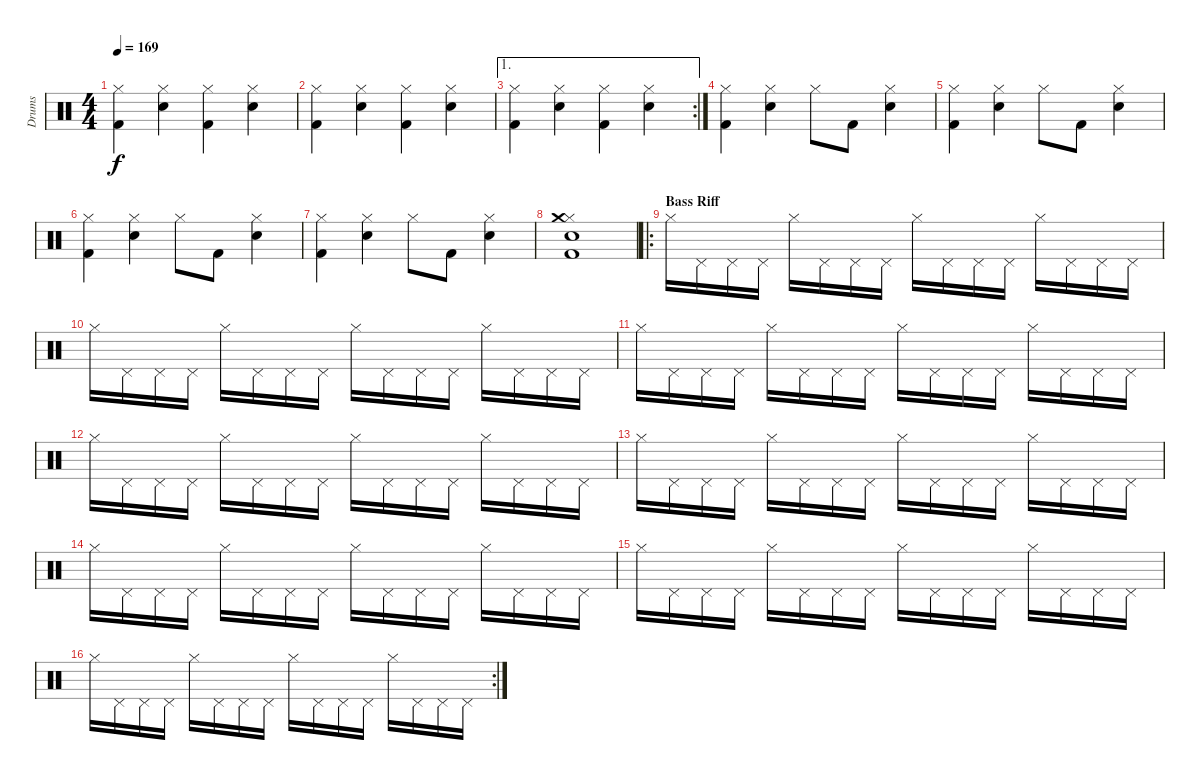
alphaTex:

\track ("Drums" "Drums") {instrument percussion}
\staff {score}
\articulation defaults
\ts (4 4)
\tempo 169
\clef neutral
\ks c
("Hi-Hat (closed)" "Kick (hit) 2").4{dy f} ("Hi-Hat (closed)" "Snare (hit) 2").4 ("Hi-Hat (closed)" "Kick (hit) 2").4 ("Hi-Hat (closed)" "Snare (hit) 2").4 |
("Hi-Hat (closed)" "Kick (hit) 2").4 ("Hi-Hat (closed)" "Snare (hit) 2").4 ("Hi-Hat (closed)" "Kick (hit) 2").4 ("Hi-Hat (closed)" "Snare (hit) 2").4 |
\ae 1
\rc 2
("Hi-Hat (closed)" "Kick (hit) 2").4 ("Hi-Hat (closed)" "Snare (hit) 2").4 ("Hi-Hat (closed)" "Kick (hit) 2").4 ("Hi-Hat (closed)" "Snare (hit) 2").4 |
("Hi-Hat (closed)" "Kick (hit) 2").4 ("Hi-Hat (closed)" "Snare (hit) 2").4 "Hi-Hat (closed)".8 "Kick (hit) 2".8 ("Hi-Hat (closed)" "Snare (hit) 2").4 |
("Hi-Hat (closed)" "Kick (hit) 2").4 ("Hi-Hat (closed)" "Snare (hit) 2").4 "Hi-Hat (closed)".8 "Kick (hit) 2".8 ("Hi-Hat (closed)" "Snare (hit) 2").4 |
("Hi-Hat (closed)" "Kick (hit) 2").4 ("Hi-Hat (closed)" "Snare (hit) 2").4 "Hi-Hat (closed)".8 "Kick (hit) 2".8 ("Hi-Hat (closed)" "Snare (hit) 2").4 |
("Hi-Hat (closed)" "Kick (hit) 2").4 ("Hi-Hat (closed)" "Snare (hit) 2").4 "Hi-Hat (closed)".8 "Kick (hit) 2".8 ("Hi-Hat (closed)" "Snare (hit) 2").4 |
("Hi-Hat (closed)" "Snare (hit) 2" "Kick (hit) 2" "Crash medium (hit)").1 |
\ro
\section ("" "Bass Riff")
"Hi-Hat (closed)".16{volume 8} "Pedal Hi-Hat (hit)".16 "Pedal Hi-Hat (hit)".16 "Pedal Hi-Hat (hit)".16 "Hi-Hat (closed)".16 "Pedal Hi-Hat (hit)".16 "Pedal Hi-Hat (hit)".16 "Pedal Hi-Hat (hit)".16 "Hi-Hat (closed)".16 "Pedal Hi-Hat (hit)".16 "Pedal Hi-Hat (hit)".16 "Pedal Hi-Hat (hit)".16 "Hi-Hat (closed)".16 "Pedal Hi-Hat (hit)".16 "Pedal Hi-Hat (hit)".16 "Pedal Hi-Hat (hit)".16 |
"Hi-Hat (closed)".16 "Pedal Hi-Hat (hit)".16 "Pedal Hi-Hat (hit)".16 "Pedal Hi-Hat (hit)".16 "Hi-Hat (closed)".16 "Pedal Hi-Hat (hit)".16 "Pedal Hi-Hat (hit)".16 "Pedal Hi-Hat (hit)".16 "Hi-Hat (closed)".16 "Pedal Hi-Hat (hit)".16 "Pedal Hi-Hat (hit)".16 "Pedal Hi-Hat (hit)".16 "Hi-Hat (closed)".16 "Pedal Hi-Hat (hit)".16 "Pedal Hi-Hat (hit)".16 "Pedal Hi-Hat (hit)".16 |
"Hi-Hat (closed)".16 "Pedal Hi-Hat (hit)".16 "Pedal Hi-Hat (hit)".16 "Pedal Hi-Hat (hit)".16 "Hi-Hat (closed)".16 "Pedal Hi-Hat (hit)".16 "Pedal Hi-Hat (hit)".16 "Pedal Hi-Hat (hit)".16 "Hi-Hat (closed)".16 "Pedal Hi-Hat (hit)".16 "Pedal Hi-Hat (hit)".16 "Pedal Hi-Hat (hit)".16 "Hi-Hat (closed)".16 "Pedal Hi-Hat (hit)".16 "Pedal Hi-Hat (hit)".16 "Pedal Hi-Hat (hit)".16 |
"Hi-Hat (closed)".16 "Pedal Hi-Hat (hit)".16 "Pedal Hi-Hat (hit)".16 "Pedal Hi-Hat (hit)".16 "Hi-Hat (closed)".16 "Pedal Hi-Hat (hit)".16 "Pedal Hi-Hat (hit)".16 "Pedal Hi-Hat (hit)".16 "Hi-Hat (closed)".16 "Pedal Hi-Hat (hit)".16 "Pedal Hi-Hat (hit)".16 "Pedal Hi-Hat (hit)".16 "Hi-Hat (closed)".16 "Pedal Hi-Hat (hit)".16 "Pedal Hi-Hat (hit)".16 "Pedal Hi-Hat (hit)".16 |
"Hi-Hat (closed)".16 "Pedal Hi-Hat (hit)".16 "Pedal Hi-Hat (hit)".16 "Pedal Hi-Hat (hit)".16 "Hi-Hat (closed)".16 "Pedal Hi-Hat (hit)".16 "Pedal Hi-Hat (hit)".16 "Pedal Hi-Hat (hit)".16 "Hi-Hat (closed)".16 "Pedal Hi-Hat (hit)".16 "Pedal Hi-Hat (hit)".16 "Pedal Hi-Hat (hit)".16 "Hi-Hat (closed)".16 "Pedal Hi-Hat (hit)".16 "Pedal Hi-Hat (hit)".16 "Pedal Hi-Hat (hit)".16 |
"Hi-Hat (closed)".16 "Pedal Hi-Hat (hit)".16 "Pedal Hi-Hat (hit)".16 "Pedal Hi-Hat (hit)".16 "Hi-Hat (closed)".16 "Pedal Hi-Hat (hit)".16 "Pedal Hi-Hat (hit)".16 "Pedal Hi-Hat (hit)".16 "Hi-Hat (closed)".16 "Pedal Hi-Hat (hit)".16 "Pedal Hi-Hat (hit)".16 "Pedal Hi-Hat (hit)".16 "Hi-Hat (closed)".16 "Pedal Hi-Hat (hit)".16 "Pedal Hi-Hat (hit)".16 "Pedal Hi-Hat (hit)".16 |
"Hi-Hat (closed)".16 "Pedal Hi-Hat (hit)".16 "Pedal Hi-Hat (hit)".16 "Pedal Hi-Hat (hit)".16 "Hi-Hat (closed)".16 "Pedal Hi-Hat (hit)".16 "Pedal Hi-Hat (hit)".16 "Pedal Hi-Hat (hit)".16 "Hi-Hat (closed)".16 "Pedal Hi-Hat (hit)".16 "Pedal Hi-Hat (hit)".16 "Pedal Hi-Hat (hit)".16 "Hi-Hat (closed)".16 "Pedal Hi-Hat (hit)".16 "Pedal Hi-Hat (hit)".16 "Pedal Hi-Hat (hit)".16 |
\rc 2 "Hi-Hat (closed)".16 "Pedal Hi-Hat (hit)".16 "Pedal Hi-Hat (hit)".16 "Pedal Hi-Hat (hit)".16 "Hi-Hat (closed)".16 "Pedal Hi-Hat (hit)".16 "Pedal Hi-Hat (hit)".16 "Pedal Hi-Hat (hit)".16 "Hi-Hat (closed)".16 "Pedal Hi-Hat (hit)".16 "Pedal Hi-Hat (hit)".16 "Pedal Hi-Hat (hit)".16 "Hi-Hat (closed)".16 "Pedal Hi-Hat (hit)".16 "Pedal Hi-Hat (hit)".16 "Pedal Hi-Hat (hit)".16
